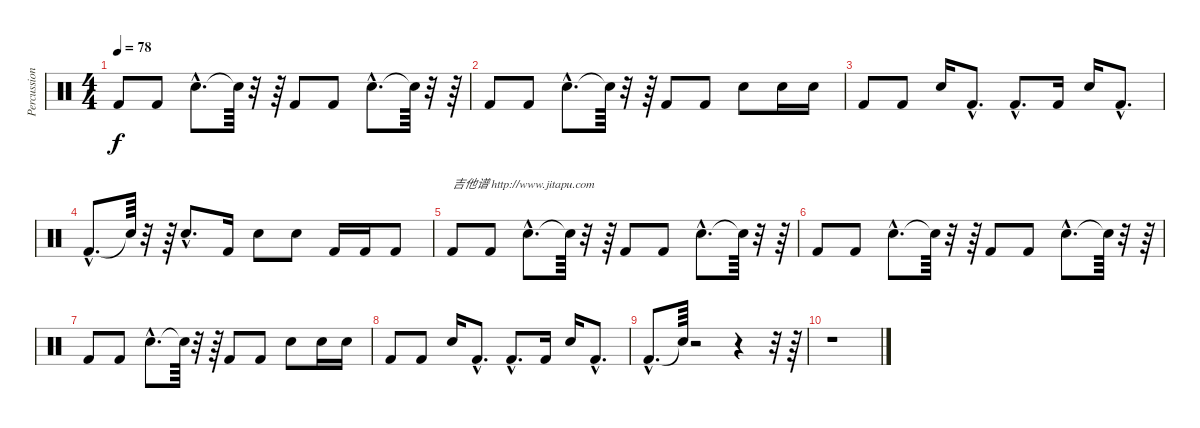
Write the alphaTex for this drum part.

\track ("Percussion" "Percussion") {instrument percussion}
\staff {score}
\articulation defaults
\ts (4 4)
\tempo 78
\clef neutral
\ks c "Kick (hit) 2".8{dy f} "Kick (hit) 2".8 "Snare (hit) 2"{hac}.8{d} "Snare (hit)"{t}.64
r.32 r.64 "Kick (hit) 2".8 "Kick (hit) 2".8 "Snare (hit) 2"{hac}.8{d} "Snare (hit)"{t}.64 r.32 r.64 |
"Kick (hit) 2".8 "Kick (hit) 2".8 "Snare (hit) 2"{hac}.8{d} "Snare (hit)"{t}.64 r.32 r.64 "Kick (hit) 2".8 "Kick (hit) 2".8 "Snare (hit) 2".8 "Snare (hit) 2".16 "Snare (hit) 2".16 |
"Kick (hit) 2".8 "Kick (hit) 2".8 "Snare (hit) 2".16 "Kick (hit) 2"{hac}.8{d} "Kick (hit) 2"{hac}.8{d} "Kick (hit) 2".16 "Snare (hit) 2".16 "Kick (hit) 2"{hac}.8{d} |
"Kick (hit) 2"{hac}.8{d} "Snare (hit)"{t}.64 r.32 r.64 "Snare (hit) 2"{hac}.8{d} "Kick (hit) 2".16 "Snare (hit) 2".8 "Snare (hit) 2".8 "Kick (hit) 2".16 "Kick (hit) 2".16 "Kick (hit) 2".8 |
"Kick (hit) 2".8{txt "吉他谱 http://www.jitapu.com"} "Kick (hit) 2".8 "Snare (hit) 2"{hac}.8{d} "Snare (hit)"{t}.64 r.32 r.64 "Kick (hit) 2".8 "Kick (hit) 2".8 "Snare (hit) 2"{hac}.8{d} "Snare (hit)"{t}.64 r.32 r.64 |
"Kick (hit) 2".8 "Kick (hit) 2".8 "Snare (hit) 2"{hac}.8{d} "Snare (hit)"{t}.64 r.32 r.64 "Kick (hit) 2".8 "Kick (hit) 2".8 "Snare (hit) 2"{hac}.8{d} "Snare (hit)"{t}.64 r.32 r.64 |
"Kick (hit) 2".8 "Kick (hit) 2".8 "Snare (hit) 2"{hac}.8{d} "Snare (hit)"{t}.64 r.32 r.64 "Kick (hit) 2".8 "Kick (hit) 2".8 "Snare (hit) 2".8 "Snare (hit) 2".16 "Snare (hit) 2".16 |
"Kick (hit) 2".8 "Kick (hit) 2".8 "Snare (hit) 2".16 "Kick (hit) 2"{hac}.8{d} "Kick (hit) 2"{hac}.8{d} "Kick (hit) 2".16 "Snare (hit) 2".16 "Kick (hit) 2"{hac}.8{d} |
"Kick (hit) 2"{hac}.8{d} "Snare (hit)"{t}.64 r.2 r.4 r.32 r.64 |
r.1
